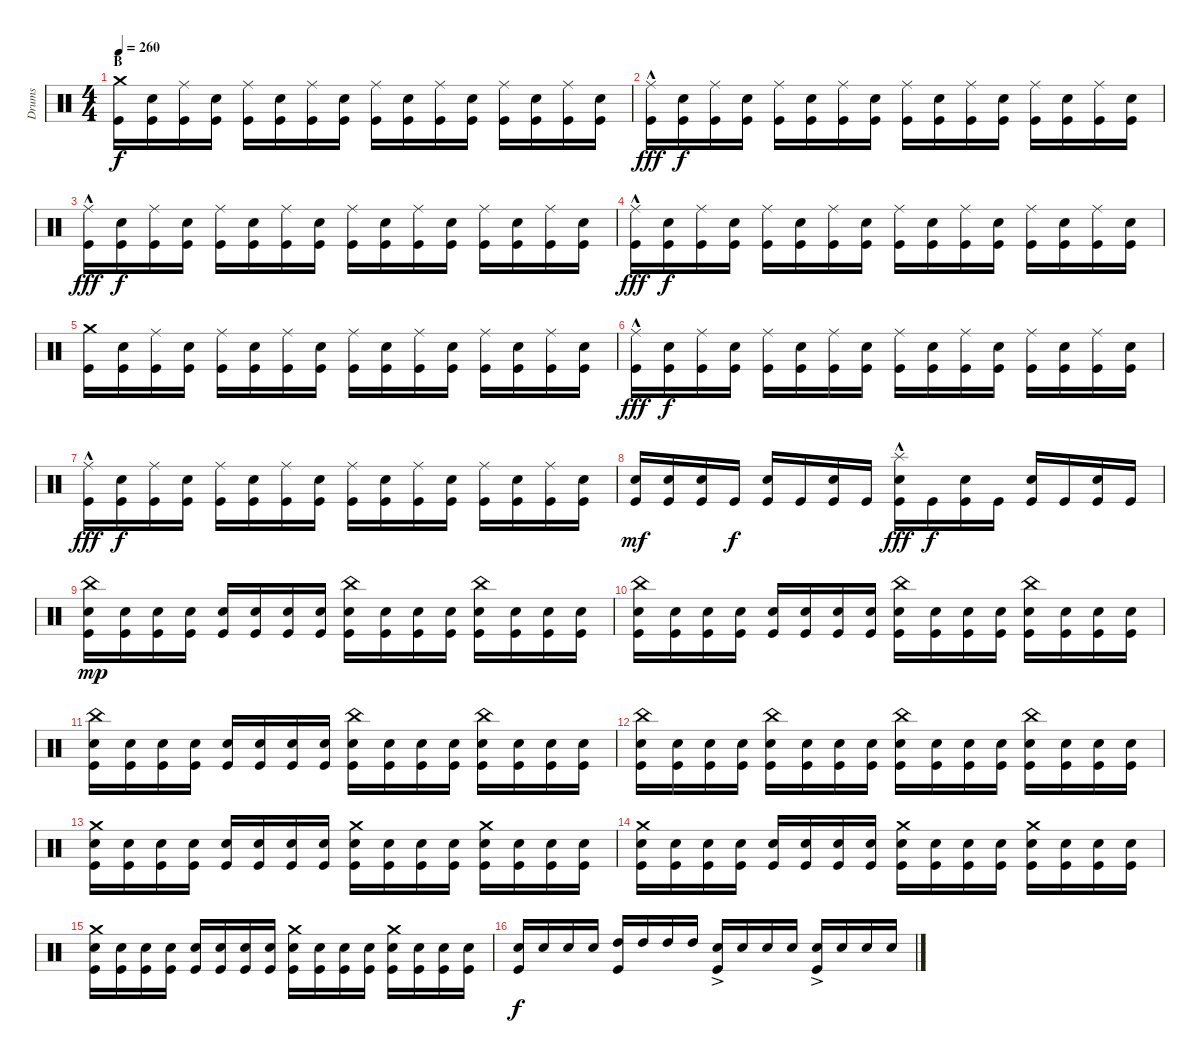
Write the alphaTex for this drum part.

\track ("Drums" "Drums") {instrument percussion}
\staff {score}
\articulation defaults
\ts (4 4)
\section ("" "B")
\tempo 260
\clef neutral
\ks c
("Crash medium (hit)" "Kick (hit)").16{dy f} ("Electric Snare (hit)" "Kick (hit)").16 ("Ride (middle)" "Kick (hit)").16 ("Electric Snare (hit)" "Kick (hit)").16 ("Ride (middle)" "Kick (hit)").16 ("Electric Snare (hit)" "Kick (hit)").16 ("Ride (middle)" "Kick (hit)").16 ("Electric Snare (hit)" "Kick (hit)").16 ("Ride (middle)" "Kick (hit)").16 ("Electric Snare (hit)" "Kick (hit)").16 ("Ride (middle)" "Kick (hit)").16 ("Electric Snare (hit)" "Kick (hit)").16 ("Ride (middle)" "Kick (hit)").16 ("Electric Snare (hit)" "Kick (hit)").16 ("Ride (middle)" "Kick (hit)").16 ("Electric Snare (hit)" "Kick (hit)").16 |
("Ride (middle)"{hac} "Kick (hit)").16{dy fff} ("Electric Snare (hit)" "Kick (hit)").16{dy f} ("Ride (middle)" "Kick (hit)").16 ("Electric Snare (hit)" "Kick (hit)").16 ("Ride (middle)" "Kick (hit)").16 ("Electric Snare (hit)" "Kick (hit)").16 ("Ride (middle)" "Kick (hit)").16 ("Electric Snare (hit)" "Kick (hit)").16 ("Ride (middle)" "Kick (hit)").16 ("Electric Snare (hit)" "Kick (hit)").16 ("Ride (middle)" "Kick (hit)").16 ("Electric Snare (hit)" "Kick (hit)").16 ("Ride (middle)" "Kick (hit)").16 ("Electric Snare (hit)" "Kick (hit)").16 ("Ride (middle)" "Kick (hit)").16 ("Electric Snare (hit)" "Kick (hit)").16 |
("Ride (middle)"{hac} "Kick (hit)").16{dy fff} ("Electric Snare (hit)" "Kick (hit)").16{dy f} ("Ride (middle)" "Kick (hit)").16 ("Electric Snare (hit)" "Kick (hit)").16 ("Ride (middle)" "Kick (hit)").16 ("Electric Snare (hit)" "Kick (hit)").16 ("Ride (middle)" "Kick (hit)").16 ("Electric Snare (hit)" "Kick (hit)").16 ("Ride (middle)" "Kick (hit)").16 ("Electric Snare (hit)" "Kick (hit)").16 ("Ride (middle)" "Kick (hit)").16 ("Electric Snare (hit)" "Kick (hit)").16 ("Ride (middle)" "Kick (hit)").16 ("Electric Snare (hit)" "Kick (hit)").16 ("Ride (middle)" "Kick (hit)").16 ("Electric Snare (hit)" "Kick (hit)").16 |
("Ride (middle)"{hac} "Kick (hit)").16{dy fff} ("Electric Snare (hit)" "Kick (hit)").16{dy f} ("Ride (middle)" "Kick (hit)").16 ("Electric Snare (hit)" "Kick (hit)").16 ("Ride (middle)" "Kick (hit)").16 ("Electric Snare (hit)" "Kick (hit)").16 ("Ride (middle)" "Kick (hit)").16 ("Electric Snare (hit)" "Kick (hit)").16 ("Ride (middle)" "Kick (hit)").16 ("Electric Snare (hit)" "Kick (hit)").16 ("Ride (middle)" "Kick (hit)").16 ("Electric Snare (hit)" "Kick (hit)").16 ("Ride (middle)" "Kick (hit)").16 ("Electric Snare (hit)" "Kick (hit)").16 ("Ride (middle)" "Kick (hit)").16 ("Electric Snare (hit)" "Kick (hit)").16 |
("Crash medium (hit)" "Kick (hit)").16 ("Electric Snare (hit)" "Kick (hit)").16 ("Ride (middle)" "Kick (hit)").16 ("Electric Snare (hit)" "Kick (hit)").16 ("Ride (middle)" "Kick (hit)").16 ("Electric Snare (hit)" "Kick (hit)").16 ("Ride (middle)" "Kick (hit)").16 ("Electric Snare (hit)" "Kick (hit)").16 ("Ride (middle)" "Kick (hit)").16 ("Electric Snare (hit)" "Kick (hit)").16 ("Ride (middle)" "Kick (hit)").16 ("Electric Snare (hit)" "Kick (hit)").16 ("Ride (middle)" "Kick (hit)").16 ("Electric Snare (hit)" "Kick (hit)").16 ("Ride (middle)" "Kick (hit)").16 ("Electric Snare (hit)" "Kick (hit)").16 |
("Ride (middle)"{hac} "Kick (hit)").16{dy fff} ("Electric Snare (hit)" "Kick (hit)").16{dy f} ("Ride (middle)" "Kick (hit)").16 ("Electric Snare (hit)" "Kick (hit)").16 ("Ride (middle)" "Kick (hit)").16 ("Electric Snare (hit)" "Kick (hit)").16 ("Ride (middle)" "Kick (hit)").16 ("Electric Snare (hit)" "Kick (hit)").16 ("Ride (middle)" "Kick (hit)").16 ("Electric Snare (hit)" "Kick (hit)").16 ("Ride (middle)" "Kick (hit)").16 ("Electric Snare (hit)" "Kick (hit)").16 ("Ride (middle)" "Kick (hit)").16 ("Electric Snare (hit)" "Kick (hit)").16 ("Ride (middle)" "Kick (hit)").16 ("Electric Snare (hit)" "Kick (hit)").16 |
("Ride (middle)"{hac} "Kick (hit)").16{dy fff} ("Electric Snare (hit)" "Kick (hit)").16{dy f} ("Ride (middle)" "Kick (hit)").16 ("Electric Snare (hit)" "Kick (hit)").16 ("Ride (middle)" "Kick (hit)").16 ("Electric Snare (hit)" "Kick (hit)").16 ("Ride (middle)" "Kick (hit)").16 ("Electric Snare (hit)" "Kick (hit)").16 ("Ride (middle)" "Kick (hit)").16 ("Electric Snare (hit)" "Kick (hit)").16 ("Ride (middle)" "Kick (hit)").16 ("Electric Snare (hit)" "Kick (hit)").16 ("Ride (middle)" "Kick (hit)").16 ("Electric Snare (hit)" "Kick (hit)").16 ("Ride (middle)" "Kick (hit)").16 ("Electric Snare (hit)" "Kick (hit)").16 |
("Electric Snare (hit)" "Kick (hit)").16{dy mf} ("Electric Snare (hit)" "Kick (hit)").16 ("Electric Snare (hit)" "Kick (hit)").16 "Kick (hit)".16{dy f} ("Electric Snare (hit)" "Kick (hit)").16 "Kick (hit)".16 ("Electric Snare (hit)" "Kick (hit)").16 "Kick (hit)".16 ("Splash (hit)"{hac} "Electric Snare (hit)" "Kick (hit)").16{dy fff} "Kick (hit)".16{dy f} ("Electric Snare (hit)" "Kick (hit)").16 "Kick (hit)".16 ("Electric Snare (hit)" "Kick (hit)").16 "Kick (hit)".16 ("Electric Snare (hit)" "Kick (hit)").16 "Kick (hit)".16 |
("China (hit)" "Electric Snare (hit)" "Kick (hit)").16{dy mp} ("Electric Snare (hit)" "Kick (hit)").16 ("Electric Snare (hit)" "Kick (hit)").16 ("Electric Snare (hit)" "Kick (hit)").16 ("Electric Snare (hit)" "Kick (hit)").16 ("Electric Snare (hit)" "Kick (hit)").16 ("Electric Snare (hit)" "Kick (hit)").16 ("Electric Snare (hit)" "Kick (hit)").16 ("China (hit)" "Electric Snare (hit)" "Kick (hit)").16 ("Electric Snare (hit)" "Kick (hit)").16 ("Electric Snare (hit)" "Kick (hit)").16 ("Electric Snare (hit)" "Kick (hit)").16 ("China (hit)" "Electric Snare (hit)" "Kick (hit)").16 ("Electric Snare (hit)" "Kick (hit)").16 ("Electric Snare (hit)" "Kick (hit)").16 ("Electric Snare (hit)" "Kick (hit)").16 |
("China (hit)" "Electric Snare (hit)" "Kick (hit)").16 ("Electric Snare (hit)" "Kick (hit)").16 ("Electric Snare (hit)" "Kick (hit)").16 ("Electric Snare (hit)" "Kick (hit)").16 ("Electric Snare (hit)" "Kick (hit)").16 ("Electric Snare (hit)" "Kick (hit)").16 ("Electric Snare (hit)" "Kick (hit)").16 ("Electric Snare (hit)" "Kick (hit)").16 ("China (hit)" "Electric Snare (hit)" "Kick (hit)").16 ("Electric Snare (hit)" "Kick (hit)").16 ("Electric Snare (hit)" "Kick (hit)").16 ("Electric Snare (hit)" "Kick (hit)").16 ("China (hit)" "Electric Snare (hit)" "Kick (hit)").16 ("Electric Snare (hit)" "Kick (hit)").16 ("Electric Snare (hit)" "Kick (hit)").16 ("Electric Snare (hit)" "Kick (hit)").16 |
("China (hit)" "Electric Snare (hit)" "Kick (hit)").16 ("Electric Snare (hit)" "Kick (hit)").16 ("Electric Snare (hit)" "Kick (hit)").16 ("Electric Snare (hit)" "Kick (hit)").16 ("Electric Snare (hit)" "Kick (hit)").16 ("Electric Snare (hit)" "Kick (hit)").16 ("Electric Snare (hit)" "Kick (hit)").16 ("Electric Snare (hit)" "Kick (hit)").16 ("China (hit)" "Electric Snare (hit)" "Kick (hit)").16 ("Electric Snare (hit)" "Kick (hit)").16 ("Electric Snare (hit)" "Kick (hit)").16 ("Electric Snare (hit)" "Kick (hit)").16 ("China (hit)" "Electric Snare (hit)" "Kick (hit)").16 ("Electric Snare (hit)" "Kick (hit)").16 ("Electric Snare (hit)" "Kick (hit)").16 ("Electric Snare (hit)" "Kick (hit)").16 |
("China (hit)" "Electric Snare (hit)" "Kick (hit)").16 ("Electric Snare (hit)" "Kick (hit)").16 ("Electric Snare (hit)" "Kick (hit)").16 ("Electric Snare (hit)" "Kick (hit)").16 ("China (hit)" "Electric Snare (hit)" "Kick (hit)").16 ("Electric Snare (hit)" "Kick (hit)").16 ("Electric Snare (hit)" "Kick (hit)").16 ("Electric Snare (hit)" "Kick (hit)").16 ("China (hit)" "Electric Snare (hit)" "Kick (hit)").16 ("Electric Snare (hit)" "Kick (hit)").16 ("Electric Snare (hit)" "Kick (hit)").16 ("Electric Snare (hit)" "Kick (hit)").16 ("China (hit)" "Electric Snare (hit)" "Kick (hit)").16 ("Electric Snare (hit)" "Kick (hit)").16 ("Electric Snare (hit)" "Kick (hit)").16 ("Electric Snare (hit)" "Kick (hit)").16 |
("Crash medium (hit)" "Electric Snare (hit)" "Kick (hit)").16 ("Electric Snare (hit)" "Kick (hit)").16 ("Electric Snare (hit)" "Kick (hit)").16 ("Electric Snare (hit)" "Kick (hit)").16 ("Electric Snare (hit)" "Kick (hit)").16 ("Electric Snare (hit)" "Kick (hit)").16 ("Electric Snare (hit)" "Kick (hit)").16 ("Electric Snare (hit)" "Kick (hit)").16 ("Crash medium (hit)" "Electric Snare (hit)" "Kick (hit)").16 ("Electric Snare (hit)" "Kick (hit)").16 ("Electric Snare (hit)" "Kick (hit)").16 ("Electric Snare (hit)" "Kick (hit)").16 ("Crash medium (hit)" "Electric Snare (hit)" "Kick (hit)").16 ("Electric Snare (hit)" "Kick (hit)").16 ("Electric Snare (hit)" "Kick (hit)").16 ("Electric Snare (hit)" "Kick (hit)").16 |
("Crash medium (hit)" "Electric Snare (hit)" "Kick (hit)").16 ("Electric Snare (hit)" "Kick (hit)").16 ("Electric Snare (hit)" "Kick (hit)").16 ("Electric Snare (hit)" "Kick (hit)").16 ("Electric Snare (hit)" "Kick (hit)").16 ("Electric Snare (hit)" "Kick (hit)").16 ("Electric Snare (hit)" "Kick (hit)").16 ("Electric Snare (hit)" "Kick (hit)").16 ("Crash medium (hit)" "Electric Snare (hit)" "Kick (hit)").16 ("Electric Snare (hit)" "Kick (hit)").16 ("Electric Snare (hit)" "Kick (hit)").16 ("Electric Snare (hit)" "Kick (hit)").16 ("Crash medium (hit)" "Electric Snare (hit)" "Kick (hit)").16 ("Electric Snare (hit)" "Kick (hit)").16 ("Electric Snare (hit)" "Kick (hit)").16 ("Electric Snare (hit)" "Kick (hit)").16 |
("Crash medium (hit)" "Electric Snare (hit)" "Kick (hit)").16 ("Electric Snare (hit)" "Kick (hit)").16 ("Electric Snare (hit)" "Kick (hit)").16 ("Electric Snare (hit)" "Kick (hit)").16 ("Electric Snare (hit)" "Kick (hit)").16 ("Electric Snare (hit)" "Kick (hit)").16 ("Electric Snare (hit)" "Kick (hit)").16 ("Electric Snare (hit)" "Kick (hit)").16 ("Crash medium (hit)" "Electric Snare (hit)" "Kick (hit)").16 ("Electric Snare (hit)" "Kick (hit)").16 ("Electric Snare (hit)" "Kick (hit)").16 ("Electric Snare (hit)" "Kick (hit)").16 ("Crash medium (hit)" "Electric Snare (hit)" "Kick (hit)").16 ("Electric Snare (hit)" "Kick (hit)").16 ("Electric Snare (hit)" "Kick (hit)").16 ("Electric Snare (hit)" "Kick (hit)").16 |
("Electric Snare (hit)" "Kick (hit)").16{dy f} "Electric Snare (hit)".16 "Electric Snare (hit)".16 "Electric Snare (hit)".16 ("High Tom (hit)" "Kick (hit)").16 "High Tom (hit)".16 "High Tom (hit)".16 "High Tom (hit)".16 ("Electric Snare (hit)"{ac} "Kick (hit)").16 "Electric Snare (hit)".16 "Electric Snare (hit)".16 "Electric Snare (hit)".16 ("Electric Snare (hit)"{ac} "Kick (hit)").16 "Electric Snare (hit)".16 "Electric Snare (hit)".16 "Electric Snare (hit)".16
